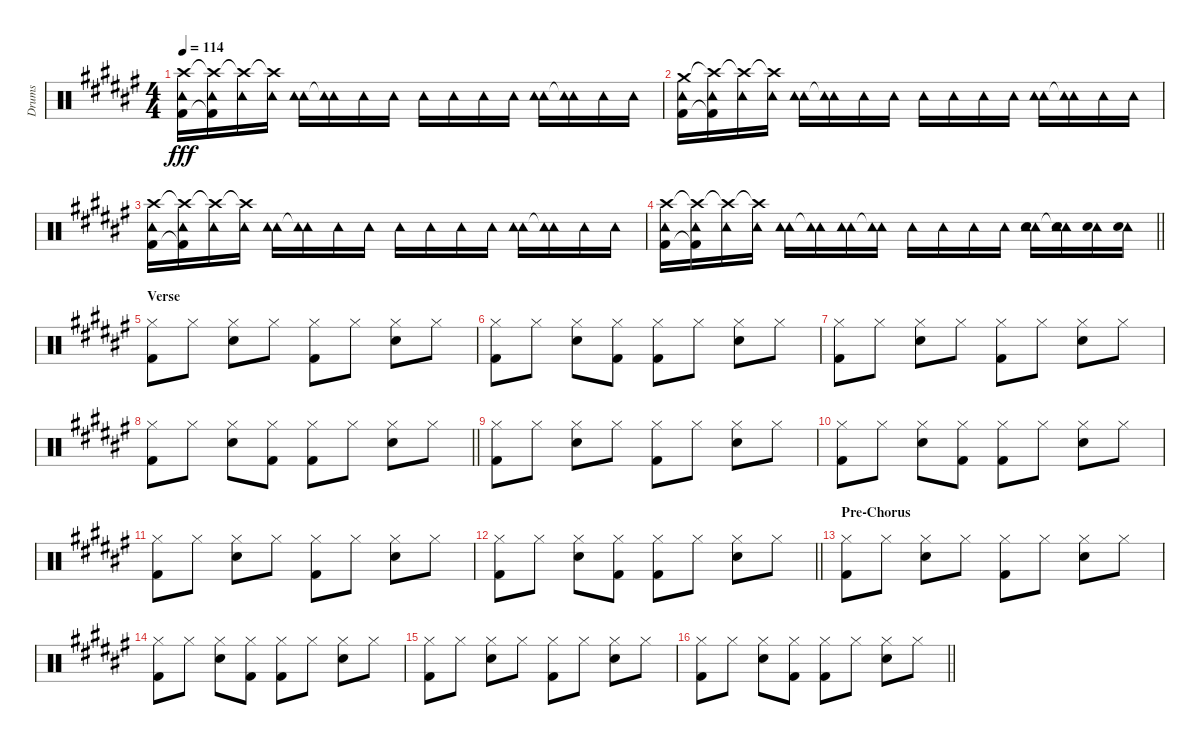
\track ("Drums" "Drums") {instrument percussion}
\staff {score}
\articulation defaults
\ts (4 4)
\tempo 114
\clef neutral
\ks f#
("Crash high (hit)" "Tambourine (hit)" "Kick (hit) 2").16{dy fff} ("Crash high (hit)"{t} "Tambourine (hit)" "Kick (hit) 2"{t}).16 ("Crash high (hit)"{t} "Tambourine (hit)").16 ("Crash high (hit)"{t} "Tambourine (hit)").16 ("Tambourine (hit)" "Tambourine (hit)").16 ("Tambourine (hit)" "Tambourine (hit)"{t}).16 "Tambourine (hit)".16 "Tambourine (hit)".16 "Tambourine (hit)".16 "Tambourine (hit)".16 "Tambourine (hit)".16 "Tambourine (hit)".16 ("Tambourine (hit)" "Tambourine (hit)").16 ("Tambourine (hit)" "Tambourine (hit)"{t}).16 "Tambourine (hit)".16 "Tambourine (hit)".16 |
("Crash medium (hit)" "Tambourine (hit)" "Kick (hit) 2").16 ("Crash high (hit)"{t} "Tambourine (hit)" "Kick (hit) 2"{t}).16 ("Crash high (hit)"{t} "Tambourine (hit)").16 ("Crash high (hit)"{t} "Tambourine (hit)").16 ("Tambourine (hit)" "Tambourine (hit)").16 ("Tambourine (hit)" "Tambourine (hit)"{t}).16 "Tambourine (hit)".16 "Tambourine (hit)".16 "Tambourine (hit)".16 "Tambourine (hit)".16 "Tambourine (hit)".16 "Tambourine (hit)".16 ("Tambourine (hit)" "Tambourine (hit)").16 ("Tambourine (hit)" "Tambourine (hit)"{t}).16 "Tambourine (hit)".16 "Tambourine (hit)".16 |
("Crash high (hit)" "Tambourine (hit)" "Kick (hit) 2").16 ("Crash high (hit)"{t} "Tambourine (hit)" "Kick (hit) 2"{t}).16 ("Crash high (hit)"{t} "Tambourine (hit)").16 ("Crash high (hit)"{t} "Tambourine (hit)").16 ("Tambourine (hit)" "Tambourine (hit)").16 ("Tambourine (hit)" "Tambourine (hit)"{t}).16 "Tambourine (hit)".16 "Tambourine (hit)".16 "Tambourine (hit)".16 "Tambourine (hit)".16 "Tambourine (hit)".16 "Tambourine (hit)".16 ("Tambourine (hit)" "Tambourine (hit)").16 ("Tambourine (hit)" "Tambourine (hit)"{t}).16 "Tambourine (hit)".16 "Tambourine (hit)".16 |
\barLineRight lightlight
("Crash high (hit)" "Tambourine (hit)" "Kick (hit) 2").16 ("Crash high (hit)"{t} "Tambourine (hit)" "Kick (hit) 2"{t}).16 ("Crash high (hit)"{t} "Tambourine (hit)").16 ("Crash high (hit)"{t} "Tambourine (hit)").16 ("Tambourine (hit)" "Tambourine (hit)").16 ("Tambourine (hit)" "Tambourine (hit)"{t}).16 ("Tambourine (hit)" "Tambourine (hit)").16 ("Tambourine (hit)" "Tambourine (hit)"{t}).16 "Tambourine (hit)".16 "Tambourine (hit)".16 "Tambourine (hit)".16 "Tambourine (hit)".16 ("Tambourine (hit)" "Electric Snare (hit)" "Tambourine (hit)").16 ("Tambourine (hit)" "Electric Snare (hit)" "Tambourine (hit)"{t}).16 ("Tambourine (hit)" "Electric Snare (hit)").16 ("Tambourine (hit)" "Electric Snare (hit)").16 |
\section ("" "Verse")
("Hi-Hat (closed)" "Kick (hit) 2").8 "Hi-Hat (closed)".8 ("Hi-Hat (closed)" "Electric Snare (hit)").8 "Hi-Hat (closed)".8 ("Hi-Hat (closed)" "Kick (hit) 2").8 "Hi-Hat (closed)".8 ("Hi-Hat (closed)" "Electric Snare (hit)").8 "Hi-Hat (closed)".8 |
("Hi-Hat (closed)" "Kick (hit) 2").8 "Hi-Hat (closed)".8 ("Hi-Hat (closed)" "Electric Snare (hit)").8 ("Hi-Hat (closed)" "Kick (hit) 2").8 ("Hi-Hat (closed)" "Kick (hit) 2").8 "Hi-Hat (closed)".8 ("Hi-Hat (closed)" "Electric Snare (hit)").8 "Hi-Hat (closed)".8 |
("Hi-Hat (closed)" "Kick (hit) 2").8 "Hi-Hat (closed)".8 ("Hi-Hat (closed)" "Electric Snare (hit)").8 "Hi-Hat (closed)".8 ("Hi-Hat (closed)" "Kick (hit) 2").8 "Hi-Hat (closed)".8 ("Hi-Hat (closed)" "Electric Snare (hit)").8 "Hi-Hat (closed)".8 |
\barLineRight lightlight
("Hi-Hat (closed)" "Kick (hit) 2").8 "Hi-Hat (closed)".8 ("Hi-Hat (closed)" "Electric Snare (hit)").8 ("Hi-Hat (closed)" "Kick (hit) 2").8 ("Hi-Hat (closed)" "Kick (hit) 2").8 "Hi-Hat (closed)".8 ("Hi-Hat (closed)" "Electric Snare (hit)").8 "Hi-Hat (closed)".8 |
("Hi-Hat (closed)" "Kick (hit) 2").8 "Hi-Hat (closed)".8 ("Hi-Hat (closed)" "Electric Snare (hit)").8 "Hi-Hat (closed)".8 ("Hi-Hat (closed)" "Kick (hit) 2").8 "Hi-Hat (closed)".8 ("Hi-Hat (closed)" "Electric Snare (hit)").8 "Hi-Hat (closed)".8 |
("Hi-Hat (closed)" "Kick (hit) 2").8 "Hi-Hat (closed)".8 ("Hi-Hat (closed)" "Electric Snare (hit)").8 ("Hi-Hat (closed)" "Kick (hit) 2").8 ("Hi-Hat (closed)" "Kick (hit) 2").8 "Hi-Hat (closed)".8 ("Hi-Hat (closed)" "Electric Snare (hit)").8 "Hi-Hat (closed)".8 |
("Hi-Hat (closed)" "Kick (hit) 2").8 "Hi-Hat (closed)".8 ("Hi-Hat (closed)" "Electric Snare (hit)").8 "Hi-Hat (closed)".8 ("Hi-Hat (closed)" "Kick (hit) 2").8 "Hi-Hat (closed)".8 ("Hi-Hat (closed)" "Electric Snare (hit)").8 "Hi-Hat (closed)".8 |
\barLineRight lightlight
("Hi-Hat (closed)" "Kick (hit) 2").8 "Hi-Hat (closed)".8 ("Hi-Hat (closed)" "Electric Snare (hit)").8 ("Hi-Hat (closed)" "Kick (hit) 2").8 ("Hi-Hat (closed)" "Kick (hit) 2").8 "Hi-Hat (closed)".8 ("Hi-Hat (closed)" "Electric Snare (hit)").8 "Hi-Hat (closed)".8 |
\section ("" "Pre-Chorus")
("Hi-Hat (closed)" "Kick (hit) 2").8 "Hi-Hat (closed)".8 ("Hi-Hat (closed)" "Electric Snare (hit)").8 "Hi-Hat (closed)".8 ("Hi-Hat (closed)" "Kick (hit) 2").8 "Hi-Hat (closed)".8 ("Hi-Hat (closed)" "Electric Snare (hit)").8 "Hi-Hat (closed)".8 |
("Hi-Hat (closed)" "Kick (hit) 2").8 "Hi-Hat (closed)".8 ("Hi-Hat (closed)" "Electric Snare (hit)").8 ("Hi-Hat (closed)" "Kick (hit) 2").8 ("Hi-Hat (closed)" "Kick (hit) 2").8 "Hi-Hat (closed)".8 ("Hi-Hat (closed)" "Electric Snare (hit)").8 "Hi-Hat (closed)".8 |
("Hi-Hat (closed)" "Kick (hit) 2").8 "Hi-Hat (closed)".8 ("Hi-Hat (closed)" "Electric Snare (hit)").8 "Hi-Hat (closed)".8 ("Hi-Hat (closed)" "Kick (hit) 2").8 "Hi-Hat (closed)".8 ("Hi-Hat (closed)" "Electric Snare (hit)").8 "Hi-Hat (closed)".8 |
\barLineRight lightlight
("Hi-Hat (closed)" "Kick (hit) 2").8 "Hi-Hat (closed)".8 ("Hi-Hat (closed)" "Electric Snare (hit)").8 ("Hi-Hat (closed)" "Kick (hit) 2").8 ("Hi-Hat (closed)" "Kick (hit) 2").8 "Hi-Hat (closed)".8 ("Hi-Hat (closed)" "Electric Snare (hit)").8 "Hi-Hat (closed)".8
